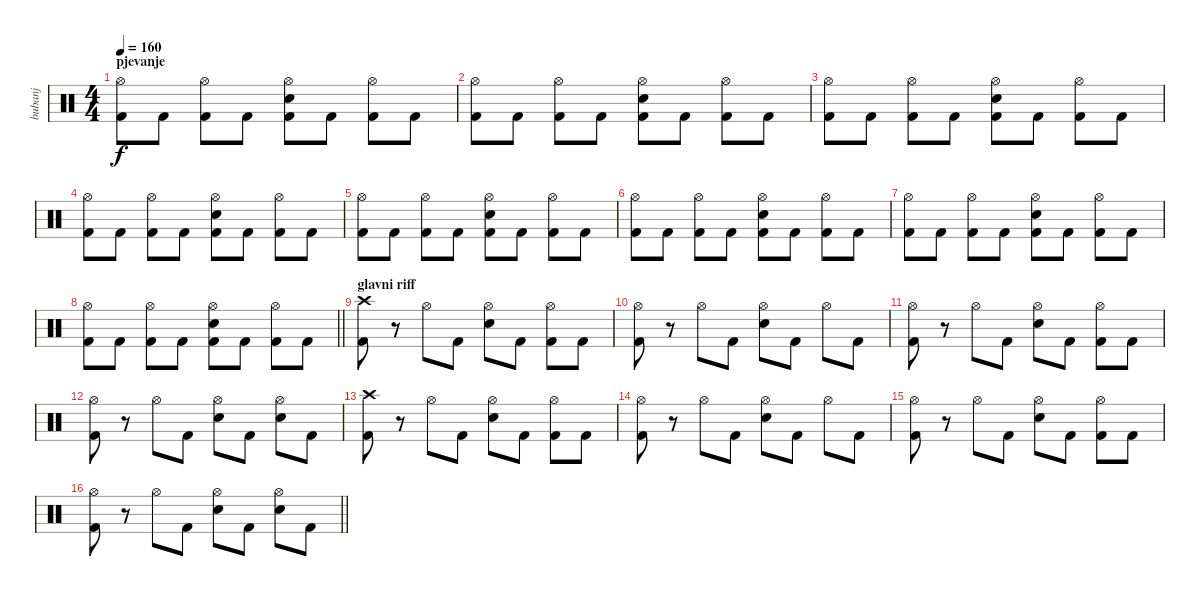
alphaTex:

\track ("bubanj" "bubanj") {instrument percussion}
\staff {score}
\articulation defaults
\ts (4 4)
\section ("" "pjevanje")
\tempo 160
\clef neutral
\ks c
("Hi-Hat (open)" "Kick (hit) 2").8{dy f} "Kick (hit) 2".8 ("Hi-Hat (open)" "Kick (hit) 2").8 "Kick (hit) 2".8 ("Hi-Hat (open)" "Electric Snare (hit)" "Kick (hit) 2").8 "Kick (hit) 2".8 ("Hi-Hat (open)" "Kick (hit) 2").8 "Kick (hit) 2".8 |
("Hi-Hat (open)" "Kick (hit) 2").8 "Kick (hit) 2".8 ("Hi-Hat (open)" "Kick (hit) 2").8 "Kick (hit) 2".8 ("Hi-Hat (open)" "Electric Snare (hit)" "Kick (hit) 2").8 "Kick (hit) 2".8 ("Hi-Hat (open)" "Kick (hit) 2").8 "Kick (hit) 2".8 |
("Hi-Hat (open)" "Kick (hit) 2").8 "Kick (hit) 2".8 ("Hi-Hat (open)" "Kick (hit) 2").8 "Kick (hit) 2".8 ("Hi-Hat (open)" "Electric Snare (hit)" "Kick (hit) 2").8 "Kick (hit) 2".8 ("Hi-Hat (open)" "Kick (hit) 2").8 "Kick (hit) 2".8 |
("Hi-Hat (open)" "Kick (hit) 2").8 "Kick (hit) 2".8 ("Hi-Hat (open)" "Kick (hit) 2").8 "Kick (hit) 2".8 ("Hi-Hat (open)" "Electric Snare (hit)" "Kick (hit) 2").8 "Kick (hit) 2".8 ("Hi-Hat (open)" "Kick (hit) 2").8 "Kick (hit) 2".8 |
("Hi-Hat (open)" "Kick (hit) 2").8 "Kick (hit) 2".8 ("Hi-Hat (open)" "Kick (hit) 2").8 "Kick (hit) 2".8 ("Hi-Hat (open)" "Electric Snare (hit)" "Kick (hit) 2").8 "Kick (hit) 2".8 ("Hi-Hat (open)" "Kick (hit) 2").8 "Kick (hit) 2".8 |
("Hi-Hat (open)" "Kick (hit) 2").8 "Kick (hit) 2".8 ("Hi-Hat (open)" "Kick (hit) 2").8 "Kick (hit) 2".8 ("Hi-Hat (open)" "Electric Snare (hit)" "Kick (hit) 2").8 "Kick (hit) 2".8 ("Hi-Hat (open)" "Kick (hit) 2").8 "Kick (hit) 2".8 |
("Hi-Hat (open)" "Kick (hit) 2").8 "Kick (hit) 2".8 ("Hi-Hat (open)" "Kick (hit) 2").8 "Kick (hit) 2".8 ("Hi-Hat (open)" "Electric Snare (hit)" "Kick (hit) 2").8 "Kick (hit) 2".8 ("Hi-Hat (open)" "Kick (hit) 2").8 "Kick (hit) 2".8 |
\barLineRight lightlight
("Hi-Hat (open)" "Kick (hit) 2").8 "Kick (hit) 2".8 ("Hi-Hat (open)" "Kick (hit) 2").8 "Kick (hit) 2".8 ("Hi-Hat (open)" "Electric Snare (hit)" "Kick (hit) 2").8 "Kick (hit) 2".8 ("Hi-Hat (open)" "Kick (hit) 2").8 "Kick (hit) 2".8 |
\section ("" "glavni riff")
("Crash high (hit)" "Kick (hit) 2").8 r.8 "Hi-Hat (open)".8 "Kick (hit) 2".8 ("Hi-Hat (open)" "Electric Snare (hit)").8 "Kick (hit) 2".8 ("Hi-Hat (open)" "Kick (hit) 2").8 "Kick (hit) 2".8 |
("Hi-Hat (open)" "Kick (hit) 2").8 r.8 "Hi-Hat (open)".8 "Kick (hit) 2".8 ("Hi-Hat (open)" "Electric Snare (hit)").8 "Kick (hit) 2".8 "Hi-Hat (open)".8 "Kick (hit) 2".8 |
("Hi-Hat (open)" "Kick (hit) 2").8 r.8 "Hi-Hat (open)".8 "Kick (hit) 2".8 ("Hi-Hat (open)" "Electric Snare (hit)").8 "Kick (hit) 2".8 ("Hi-Hat (open)" "Kick (hit) 2").8 "Kick (hit) 2".8 |
("Hi-Hat (open)" "Kick (hit) 2").8 r.8 "Hi-Hat (open)".8 "Kick (hit) 2".8 ("Hi-Hat (open)" "Electric Snare (hit)").8 "Kick (hit) 2".8 ("Hi-Hat (open)" "Electric Snare (hit)").8 "Kick (hit) 2".8 |
("Crash high (hit)" "Kick (hit) 2").8 r.8 "Hi-Hat (open)".8 "Kick (hit) 2".8 ("Hi-Hat (open)" "Electric Snare (hit)").8 "Kick (hit) 2".8 ("Hi-Hat (open)" "Kick (hit) 2").8 "Kick (hit) 2".8 |
("Hi-Hat (open)" "Kick (hit) 2").8 r.8 "Hi-Hat (open)".8 "Kick (hit) 2".8 ("Hi-Hat (open)" "Electric Snare (hit)").8 "Kick (hit) 2".8 "Hi-Hat (open)".8 "Kick (hit) 2".8 |
("Hi-Hat (open)" "Kick (hit) 2").8 r.8 "Hi-Hat (open)".8 "Kick (hit) 2".8 ("Hi-Hat (open)" "Electric Snare (hit)").8 "Kick (hit) 2".8 ("Hi-Hat (open)" "Kick (hit) 2").8 "Kick (hit) 2".8 |
\barLineRight lightlight
("Hi-Hat (open)" "Kick (hit) 2").8 r.8 "Hi-Hat (open)".8 "Kick (hit) 2".8 ("Hi-Hat (open)" "Electric Snare (hit)").8 "Kick (hit) 2".8 ("Hi-Hat (open)" "Electric Snare (hit)").8 "Kick (hit) 2".8
